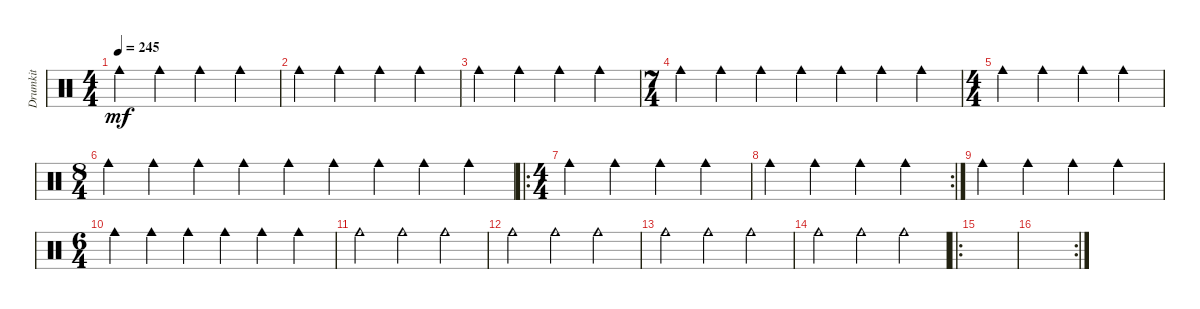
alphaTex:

\track ("Drumkit" "Drumkit") {instrument percussion}
\staff {score}
\articulation defaults
\ts (4 4)
\tempo 245
\clef neutral
\ks c "Cowbell medium (hit)".4{dy mf} "Cowbell medium (hit)".4 "Cowbell medium (hit)".4 "Cowbell medium (hit)".4
|
"Cowbell medium (hit)".4 "Cowbell medium (hit)".4 "Cowbell medium (hit)".4 "Cowbell medium (hit)".4 |
"Cowbell medium (hit)".4 "Cowbell medium (hit)".4 "Cowbell medium (hit)".4 "Cowbell medium (hit)".4 |
\ts (7 4)
"Cowbell medium (hit)".4 "Cowbell medium (hit)".4 "Cowbell medium (hit)".4 "Cowbell medium (hit)".4 "Cowbell medium (hit)".4 "Cowbell medium (hit)".4 "Cowbell medium (hit)".4 |
\ts (4 4)
"Cowbell medium (hit)".4 "Cowbell medium (hit)".4 "Cowbell medium (hit)".4 "Cowbell medium (hit)".4 |
\ts (8 4)
"Cowbell medium (hit)".4 "Cowbell medium (hit)".4 "Cowbell medium (hit)".4 "Cowbell medium (hit)".4 "Cowbell medium (hit)".4 "Cowbell medium (hit)".4 "Cowbell medium (hit)".4 "Cowbell medium (hit)".4 "Cowbell medium (hit)".4 |
\ro
\ts (4 4)
"Cowbell medium (hit)".4 "Cowbell medium (hit)".4 "Cowbell medium (hit)".4 "Cowbell medium (hit)".4 |
\rc 2 "Cowbell medium (hit)".4 "Cowbell medium (hit)".4 "Cowbell medium (hit)".4 "Cowbell medium (hit)".4
|
"Cowbell medium (hit)".4 "Cowbell medium (hit)".4 "Cowbell medium (hit)".4 "Cowbell medium (hit)".4 |
\ts (6 4)
"Cowbell medium (hit)".4 "Cowbell medium (hit)".4 "Cowbell medium (hit)".4 "Cowbell medium (hit)".4 "Cowbell medium (hit)".4 "Cowbell medium (hit)".4 |
"Cowbell medium (hit)".2 "Cowbell medium (hit)".2 "Cowbell medium (hit)".2 |
"Cowbell medium (hit)".2 "Cowbell medium (hit)".2 "Cowbell medium (hit)".2 |
"Cowbell medium (hit)".2 "Cowbell medium (hit)".2 "Cowbell medium (hit)".2 |
"Cowbell medium (hit)".2 "Cowbell medium (hit)".2 "Cowbell medium (hit)".2 |
\ro
|
\rc 2
